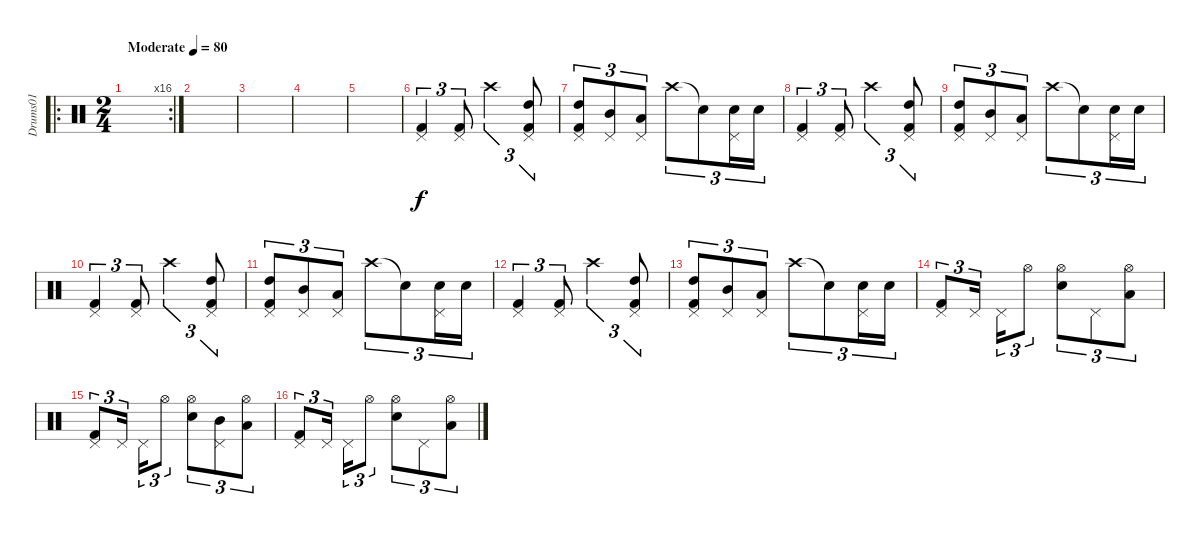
\track ("Drums01" "Drums01") {instrument percussion}
\staff {score}
\articulation defaults
\ro
\rc 16
\ts (2 4)
\tempo (80 "Moderate")
\clef neutral
\ks c
|
|
|
|
|
("Pedal Hi-Hat (hit)" "Kick (hit) 2").4{tu (3 2)} ("Pedal Hi-Hat (hit)" "Kick (hit) 2").8{tu (3 2)} "Crash high (hit)".4{tu (3 2)} ("Pedal Hi-Hat (hit)" "High Tom (hit)" "Kick (hit) 2").8{tu (3 2)} |
("Pedal Hi-Hat (hit)" "High Tom (hit)" "Kick (hit) 2").8{tu (3 2)} ("Pedal Hi-Hat (hit)" "Mid Tom (hit)").8{tu (3 2)} ("Pedal Hi-Hat (hit)" "Low Tom (hit)").8{tu (3 2)} "Crash high (hit)".8{tu (3 2)} "Snare (hit)"{t}.8{tu (3 2)} ("Pedal Hi-Hat (hit)" "Snare (hit) 2").16{tu (3 2)} "Snare (hit) 2".16{tu (3 2)} |
("Pedal Hi-Hat (hit)" "Kick (hit) 2").4{tu (3 2)} ("Pedal Hi-Hat (hit)" "Kick (hit) 2").8{tu (3 2)} "Crash high (hit)".4{tu (3 2)} ("Pedal Hi-Hat (hit)" "High Tom (hit)" "Kick (hit) 2").8{tu (3 2)} |
("Pedal Hi-Hat (hit)" "High Tom (hit)" "Kick (hit) 2").8{tu (3 2)} ("Pedal Hi-Hat (hit)" "Mid Tom (hit)").8{tu (3 2)} ("Pedal Hi-Hat (hit)" "Low Tom (hit)").8{tu (3 2)} "Crash high (hit)".8{tu (3 2)} "Snare (hit)"{t}.8{tu (3 2)} ("Pedal Hi-Hat (hit)" "Snare (hit) 2").16{tu (3 2)} "Snare (hit) 2".16{tu (3 2)} |
("Pedal Hi-Hat (hit)" "Kick (hit) 2").4{tu (3 2)} ("Pedal Hi-Hat (hit)" "Kick (hit) 2").8{tu (3 2)} "Crash high (hit)".4{tu (3 2)} ("Pedal Hi-Hat (hit)" "High Tom (hit)" "Kick (hit) 2").8{tu (3 2)} |
("Pedal Hi-Hat (hit)" "High Tom (hit)" "Kick (hit) 2").8{tu (3 2)} ("Pedal Hi-Hat (hit)" "Mid Tom (hit)").8{tu (3 2)} ("Pedal Hi-Hat (hit)" "Low Tom (hit)").8{tu (3 2)} "Crash high (hit)".8{tu (3 2)} "Snare (hit)"{t}.8{tu (3 2)} ("Pedal Hi-Hat (hit)" "Snare (hit) 2").16{tu (3 2)} "Snare (hit) 2".16{tu (3 2)} |
("Pedal Hi-Hat (hit)" "Kick (hit) 2").4{tu (3 2)} ("Pedal Hi-Hat (hit)" "Kick (hit) 2").8{tu (3 2)} "Crash high (hit)".4{tu (3 2)} ("Pedal Hi-Hat (hit)" "High Tom (hit)" "Kick (hit) 2").8{tu (3 2)} |
("Pedal Hi-Hat (hit)" "High Tom (hit)" "Kick (hit) 2").8{tu (3 2)} ("Pedal Hi-Hat (hit)" "Mid Tom (hit)").8{tu (3 2)} ("Pedal Hi-Hat (hit)" "Low Tom (hit)").8{tu (3 2)} "Crash high (hit)".8{tu (3 2)} "Snare (hit)"{t}.8{tu (3 2)} ("Pedal Hi-Hat (hit)" "Snare (hit) 2").16{tu (3 2)} "Snare (hit) 2".16{tu (3 2)} |
("Pedal Hi-Hat (hit)" "Kick (hit) 2").8{tu (3 2)} "Pedal Hi-Hat (hit)".16{tu (3 2) beam splitsecondary} "Pedal Hi-Hat (hit)".16{tu (3 2)} "Hi-Hat (open)".8{tu (3 2)} ("Hi-Hat (open)" "Snare (hit) 2").8{tu (3 2)} "Pedal Hi-Hat (hit)".8{tu (3 2)} ("Hi-Hat (open)" "Low Tom (hit)").8{tu (3 2)} |
("Pedal Hi-Hat (hit)" "Kick (hit) 2").8{tu (3 2)} "Pedal Hi-Hat (hit)".16{tu (3 2) beam splitsecondary} "Pedal Hi-Hat (hit)".16{tu (3 2)} "Hi-Hat (open)".8{tu (3 2)} ("Hi-Hat (open)" "Snare (hit) 2").8{tu (3 2)} ("Pedal Hi-Hat (hit)" "Mid Tom (hit)").8{tu (3 2)} ("Hi-Hat (open)" "Low Tom (hit)").8{tu (3 2)} |
("Pedal Hi-Hat (hit)" "Kick (hit) 2").8{tu (3 2)} "Pedal Hi-Hat (hit)".16{tu (3 2) beam splitsecondary} "Pedal Hi-Hat (hit)".16{tu (3 2)} "Hi-Hat (open)".8{tu (3 2)} ("Hi-Hat (open)" "Snare (hit) 2").8{tu (3 2)} "Pedal Hi-Hat (hit)".8{tu (3 2)} ("Hi-Hat (open)" "Low Tom (hit)").8{tu (3 2)}
